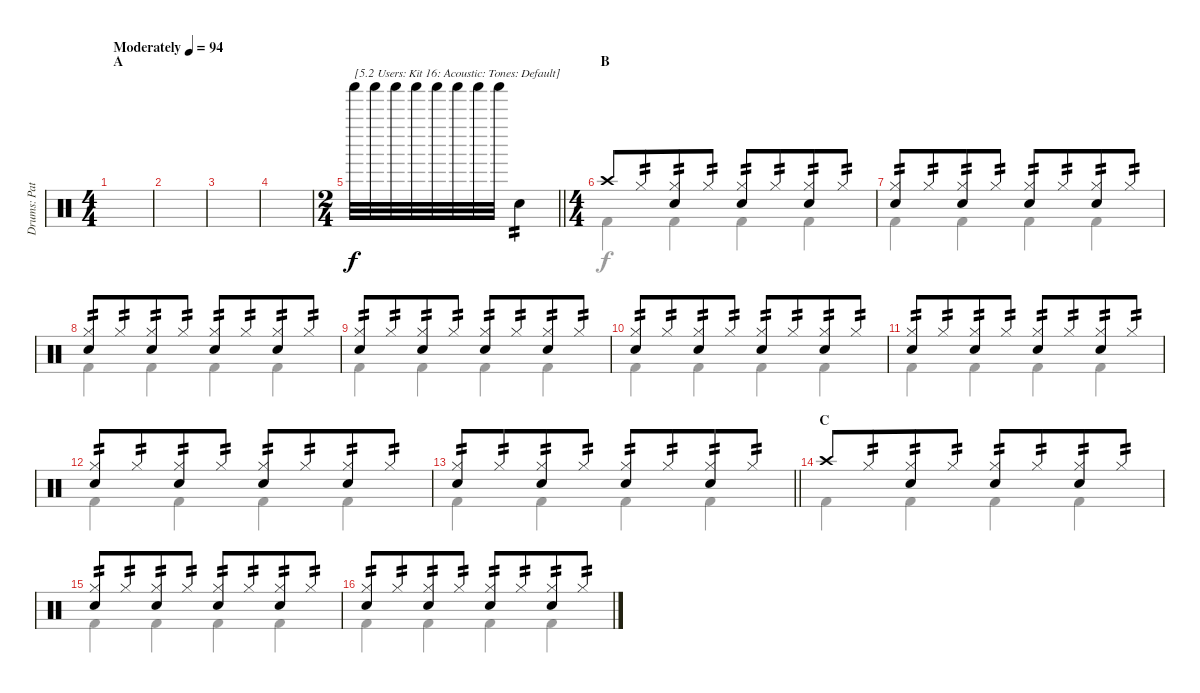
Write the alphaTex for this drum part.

\track ("Drums: Pat" "Drums: Pat") {instrument percussion}
\staff {score}
\articulation defaults
\voice
\ts (4 4)
\section ("" "A")
\tempo (94 "Moderately")
\clef neutral
\ks c
|
|
|
|
\ts (2 4)
\barLineRight lightlight "Shaker (hit)".32{txt "[5.2 Users: Kit 16: Acoustic: Tones: Default]"} "Shaker (hit)".32 "Shaker (hit)".32 "Shaker (hit)".32 "Shaker (hit)".32 "Shaker (hit)".32 "Shaker (hit)".32 "Shaker (hit)".32 "Electric Snare (hit)".4{tp 2}
|
\ts (4 4)
\section ("" "B")
"Crash high (hit)".8 "Hi-Hat (closed)".8{tp 2 beam merge} ("Hi-Hat (closed)" "Electric Snare (hit)").8{tp 2} "Hi-Hat (closed)".8{tp 2} ("Hi-Hat (closed)" "Electric Snare (hit)").8{tp 2} "Hi-Hat (closed)".8{tp 2 beam merge} ("Hi-Hat (closed)" "Electric Snare (hit)").8{tp 2} "Hi-Hat (closed)".8{tp 2} |
("Hi-Hat (closed)" "Electric Snare (hit)").8{tp 2} "Hi-Hat (closed)".8{tp 2 beam merge} ("Hi-Hat (closed)" "Electric Snare (hit)").8{tp 2} "Hi-Hat (closed)".8{tp 2} ("Hi-Hat (closed)" "Electric Snare (hit)").8{tp 2} "Hi-Hat (closed)".8{tp 2 beam merge} ("Hi-Hat (closed)" "Electric Snare (hit)").8{tp 2} "Hi-Hat (closed)".8{tp 2} |
("Hi-Hat (closed)" "Electric Snare (hit)").8{tp 2} "Hi-Hat (closed)".8{tp 2 beam merge} ("Hi-Hat (closed)" "Electric Snare (hit)").8{tp 2} "Hi-Hat (closed)".8{tp 2} ("Hi-Hat (closed)" "Electric Snare (hit)").8{tp 2} "Hi-Hat (closed)".8{tp 2 beam merge} ("Hi-Hat (closed)" "Electric Snare (hit)").8{tp 2} "Hi-Hat (closed)".8{tp 2} |
("Hi-Hat (closed)" "Electric Snare (hit)").8{tp 2} "Hi-Hat (closed)".8{tp 2 beam merge} ("Hi-Hat (closed)" "Electric Snare (hit)").8{tp 2} "Hi-Hat (closed)".8{tp 2} ("Hi-Hat (closed)" "Electric Snare (hit)").8{tp 2} "Hi-Hat (closed)".8{tp 2 beam merge} ("Hi-Hat (closed)" "Electric Snare (hit)").8{tp 2} "Hi-Hat (closed)".8{tp 2} |
("Hi-Hat (closed)" "Electric Snare (hit)").8{tp 2} "Hi-Hat (closed)".8{tp 2 beam merge} ("Hi-Hat (closed)" "Electric Snare (hit)").8{tp 2} "Hi-Hat (closed)".8{tp 2} ("Hi-Hat (closed)" "Electric Snare (hit)").8{tp 2} "Hi-Hat (closed)".8{tp 2 beam merge} ("Hi-Hat (closed)" "Electric Snare (hit)").8{tp 2} "Hi-Hat (closed)".8{tp 2} |
("Hi-Hat (closed)" "Electric Snare (hit)").8{tp 2} "Hi-Hat (closed)".8{tp 2 beam merge} ("Hi-Hat (closed)" "Electric Snare (hit)").8{tp 2} "Hi-Hat (closed)".8{tp 2} ("Hi-Hat (closed)" "Electric Snare (hit)").8{tp 2} "Hi-Hat (closed)".8{tp 2 beam merge} ("Hi-Hat (closed)" "Electric Snare (hit)").8{tp 2} "Hi-Hat (closed)".8{tp 2} |
("Hi-Hat (closed)" "Electric Snare (hit)").8{tp 2} "Hi-Hat (closed)".8{tp 2 beam merge} ("Hi-Hat (closed)" "Electric Snare (hit)").8{tp 2} "Hi-Hat (closed)".8{tp 2} ("Hi-Hat (closed)" "Electric Snare (hit)").8{tp 2} "Hi-Hat (closed)".8{tp 2 beam merge} ("Hi-Hat (closed)" "Electric Snare (hit)").8{tp 2} "Hi-Hat (closed)".8{tp 2} |
\barLineRight lightlight
("Hi-Hat (closed)" "Electric Snare (hit)").8{tp 2} "Hi-Hat (closed)".8{tp 2 beam merge} ("Hi-Hat (closed)" "Electric Snare (hit)").8{tp 2} "Hi-Hat (closed)".8{tp 2} ("Hi-Hat (closed)" "Electric Snare (hit)").8{tp 2} "Hi-Hat (closed)".8{tp 2 beam merge} ("Hi-Hat (closed)" "Electric Snare (hit)").8{tp 2} "Hi-Hat (closed)".8{tp 2} |
\section ("" "C")
"Crash high (hit)".8 "Hi-Hat (closed)".8{tp 2 beam merge} ("Hi-Hat (closed)" "Electric Snare (hit)").8{tp 2} "Hi-Hat (closed)".8{tp 2} ("Hi-Hat (closed)" "Electric Snare (hit)").8{tp 2} "Hi-Hat (closed)".8{tp 2 beam merge} ("Hi-Hat (closed)" "Electric Snare (hit)").8{tp 2} "Hi-Hat (closed)".8{tp 2} |
("Hi-Hat (closed)" "Electric Snare (hit)").8{tp 2} "Hi-Hat (closed)".8{tp 2 beam merge} ("Hi-Hat (closed)" "Electric Snare (hit)").8{tp 2} "Hi-Hat (closed)".8{tp 2} ("Hi-Hat (closed)" "Electric Snare (hit)").8{tp 2} "Hi-Hat (closed)".8{tp 2 beam merge} ("Hi-Hat (closed)" "Electric Snare (hit)").8{tp 2} "Hi-Hat (closed)".8{tp 2} |
("Hi-Hat (closed)" "Electric Snare (hit)").8{tp 2} "Hi-Hat (closed)".8{tp 2 beam merge} ("Hi-Hat (closed)" "Electric Snare (hit)").8{tp 2} "Hi-Hat (closed)".8{tp 2} ("Hi-Hat (closed)" "Electric Snare (hit)").8{tp 2} "Hi-Hat (closed)".8{tp 2 beam merge} ("Hi-Hat (closed)" "Electric Snare (hit)").8{tp 2} "Hi-Hat (closed)".8{tp 2}
\voice
\clef neutral
\ottava regular
\simile none
\ks c
|
|
|
|
\barLineRight lightlight
|
"Kick (hit) 2".4 "Kick (hit) 2".4 "Kick (hit) 2".4 "Kick (hit) 2".4 |
"Kick (hit) 2".4 "Kick (hit) 2".4 "Kick (hit) 2".4 "Kick (hit) 2".4 |
"Kick (hit) 2".4 "Kick (hit) 2".4 "Kick (hit) 2".4 "Kick (hit) 2".4 |
"Kick (hit) 2".4 "Kick (hit) 2".4 "Kick (hit) 2".4 "Kick (hit) 2".4 |
"Kick (hit) 2".4 "Kick (hit) 2".4 "Kick (hit) 2".4 "Kick (hit) 2".4 |
"Kick (hit) 2".4 "Kick (hit) 2".4 "Kick (hit) 2".4 "Kick (hit) 2".4 |
"Kick (hit) 2".4 "Kick (hit) 2".4 "Kick (hit) 2".4 "Kick (hit) 2".4 |
\barLineRight lightlight "Kick (hit) 2".4 "Kick (hit) 2".4 "Kick (hit) 2".4 "Kick (hit) 2".4
|
"Kick (hit) 2".4 "Kick (hit) 2".4 "Kick (hit) 2".4 "Kick (hit) 2".4 |
"Kick (hit) 2".4 "Kick (hit) 2".4 "Kick (hit) 2".4 "Kick (hit) 2".4 |
"Kick (hit) 2".4 "Kick (hit) 2".4 "Kick (hit) 2".4 "Kick (hit) 2".4
